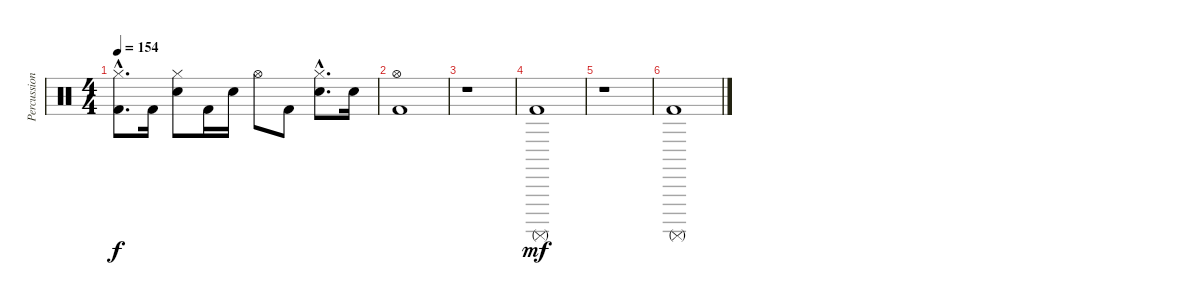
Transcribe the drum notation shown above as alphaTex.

\track ("Percussions" "Percussion") {instrument percussion}
\staff {score}
\articulation defaults
\ts (4 4)
\tempo 154
\clef neutral
\ks c
("Kick (hit) 2"{hac} "Hi-Hat (closed)"{hac}).8{d dy f} "Kick (hit) 2".16 ("Electric Snare (hit)" "Hi-Hat (closed)").8 "Kick (hit) 2".16 "Electric Snare (hit)".16 "Hi-Hat (open)".8 "Kick (hit) 2".8 ("Electric Snare (hit)"{hac} "Hi-Hat (closed)"{hac}).8{d} "Electric Snare (hit)".16 |
("Kick (hit) 2" "Hi-Hat (open)").1 |
r.1 |
("Kick (hit) 2" "Surdo (mute)").1{dy mf} |
r.1 |
("Kick (hit) 2" "Surdo (mute)").1
